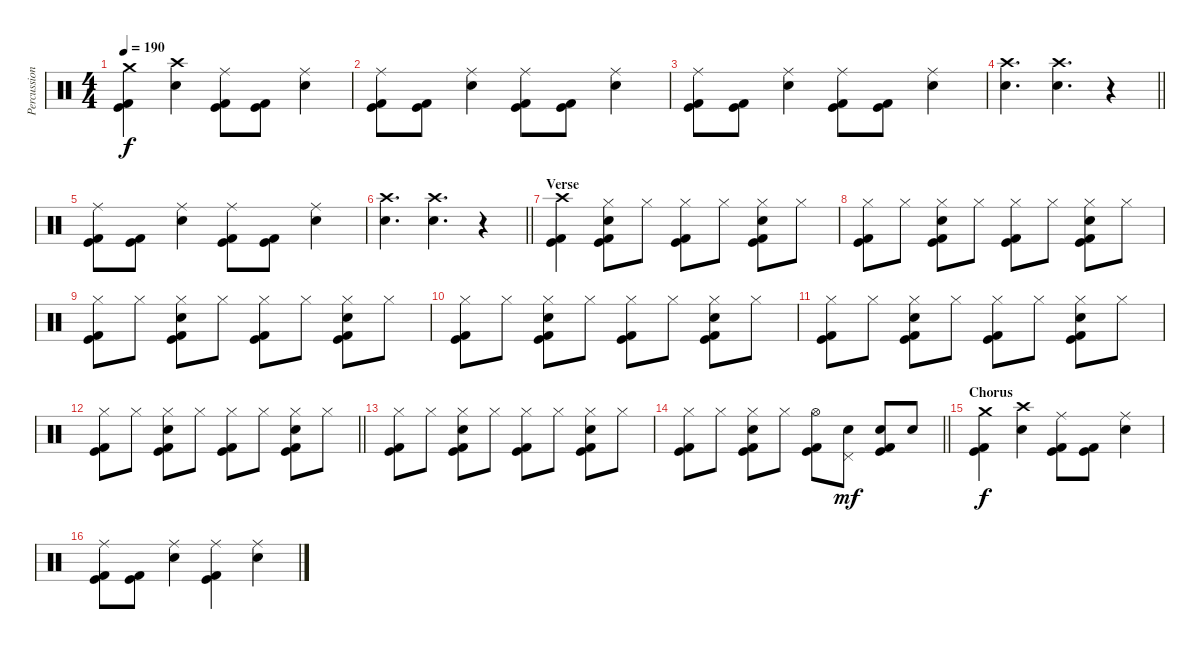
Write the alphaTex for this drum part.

\track ("Percussion" "Percussion") {instrument percussion}
\staff {score}
\articulation defaults
\ts (4 4)
\tempo 190
\clef neutral
\ks c
("Crash medium (hit)" "Kick (hit)" "Kick (hit) 2").4{dy f} ("Crash high (hit)" "Electric Snare (hit)").4 ("Ride (middle)" "Kick (hit)" "Kick (hit) 2").8 ("Kick (hit)" "Kick (hit) 2").8 ("Ride (middle)" "Electric Snare (hit)").4 |
("Ride (middle)" "Kick (hit)" "Kick (hit) 2").8 ("Kick (hit)" "Kick (hit) 2").8 ("Ride (middle)" "Electric Snare (hit)").4 ("Ride (middle)" "Kick (hit)" "Kick (hit) 2").8 ("Kick (hit)" "Kick (hit) 2").8 ("Ride (middle)" "Electric Snare (hit)").4 |
("Ride (middle)" "Kick (hit)" "Kick (hit) 2").8 ("Kick (hit)" "Kick (hit) 2").8 ("Ride (middle)" "Electric Snare (hit)").4 ("Ride (middle)" "Kick (hit)" "Kick (hit) 2").8 ("Kick (hit)" "Kick (hit) 2").8 ("Ride (middle)" "Electric Snare (hit)").4 |
\barLineRight lightlight
("Crash high (hit)" "Electric Snare (hit)").4{d} ("Crash high (hit)" "Electric Snare (hit)").4{d} r.4 |
("Ride (middle)" "Kick (hit)" "Kick (hit) 2").8 ("Kick (hit)" "Kick (hit) 2").8 ("Ride (middle)" "Electric Snare (hit)").4 ("Ride (middle)" "Kick (hit)" "Kick (hit) 2").8 ("Kick (hit)" "Kick (hit) 2").8 ("Ride (middle)" "Electric Snare (hit)").4 |
\barLineRight lightlight
("Crash high (hit)" "Electric Snare (hit)").4{d} ("Crash high (hit)" "Electric Snare (hit)").4{d} r.4 |
\section ("" "Verse")
("Crash high (hit)" "Kick (hit)" "Kick (hit) 2").4 ("Hi-Hat (closed)" "Electric Snare (hit)" "Kick (hit)" "Kick (hit) 2").8 "Hi-Hat (closed)".8 ("Hi-Hat (closed)" "Kick (hit)" "Kick (hit) 2").8 "Hi-Hat (closed)".8 ("Hi-Hat (closed)" "Electric Snare (hit)" "Kick (hit)" "Kick (hit) 2").8 "Hi-Hat (closed)".8 |
("Hi-Hat (closed)" "Kick (hit)" "Kick (hit) 2").8 "Hi-Hat (closed)".8 ("Hi-Hat (closed)" "Electric Snare (hit)" "Kick (hit)" "Kick (hit) 2").8 "Hi-Hat (closed)".8 ("Hi-Hat (closed)" "Kick (hit)" "Kick (hit) 2").8 "Hi-Hat (closed)".8 ("Hi-Hat (closed)" "Electric Snare (hit)" "Kick (hit)" "Kick (hit) 2").8 "Hi-Hat (closed)".8 |
("Hi-Hat (closed)" "Kick (hit)" "Kick (hit) 2").8 "Hi-Hat (closed)".8 ("Hi-Hat (closed)" "Electric Snare (hit)" "Kick (hit)" "Kick (hit) 2").8 "Hi-Hat (closed)".8 ("Hi-Hat (closed)" "Kick (hit)" "Kick (hit) 2").8 "Hi-Hat (closed)".8 ("Hi-Hat (closed)" "Electric Snare (hit)" "Kick (hit)" "Kick (hit) 2").8 "Hi-Hat (closed)".8 |
("Hi-Hat (closed)" "Kick (hit)" "Kick (hit) 2").8 "Hi-Hat (closed)".8 ("Hi-Hat (closed)" "Electric Snare (hit)" "Kick (hit)" "Kick (hit) 2").8 "Hi-Hat (closed)".8 ("Hi-Hat (closed)" "Kick (hit)" "Kick (hit) 2").8 "Hi-Hat (closed)".8 ("Hi-Hat (closed)" "Electric Snare (hit)" "Kick (hit)" "Kick (hit) 2").8 "Hi-Hat (closed)".8 |
("Hi-Hat (closed)" "Kick (hit)" "Kick (hit) 2").8 "Hi-Hat (closed)".8 ("Hi-Hat (closed)" "Electric Snare (hit)" "Kick (hit)" "Kick (hit) 2").8 "Hi-Hat (closed)".8 ("Hi-Hat (closed)" "Kick (hit)" "Kick (hit) 2").8 "Hi-Hat (closed)".8 ("Hi-Hat (closed)" "Electric Snare (hit)" "Kick (hit)" "Kick (hit) 2").8 "Hi-Hat (closed)".8 |
\barLineRight lightlight
("Hi-Hat (closed)" "Kick (hit)" "Kick (hit) 2").8 "Hi-Hat (closed)".8 ("Hi-Hat (closed)" "Electric Snare (hit)" "Kick (hit)" "Kick (hit) 2").8 "Hi-Hat (closed)".8 ("Hi-Hat (closed)" "Kick (hit)" "Kick (hit) 2").8 "Hi-Hat (closed)".8 ("Hi-Hat (closed)" "Electric Snare (hit)" "Kick (hit)" "Kick (hit) 2").8 "Hi-Hat (closed)".8 |
("Hi-Hat (closed)" "Kick (hit)" "Kick (hit) 2").8 "Hi-Hat (closed)".8 ("Hi-Hat (closed)" "Electric Snare (hit)" "Kick (hit)" "Kick (hit) 2").8 "Hi-Hat (closed)".8 ("Hi-Hat (closed)" "Kick (hit)" "Kick (hit) 2").8 "Hi-Hat (closed)".8 ("Hi-Hat (closed)" "Electric Snare (hit)" "Kick (hit)" "Kick (hit) 2").8 "Hi-Hat (closed)".8 |
\barLineRight lightlight
("Hi-Hat (closed)" "Kick (hit)" "Kick (hit) 2").8 "Hi-Hat (closed)".8 ("Hi-Hat (closed)" "Electric Snare (hit)" "Kick (hit)" "Kick (hit) 2").8 "Hi-Hat (closed)".8 ("Hi-Hat (open)" "Kick (hit)" "Kick (hit) 2").8 ("Pedal Hi-Hat (hit)" "Electric Snare (hit)").8{dy mf} ("Electric Snare (hit)" "Kick (hit)" "Kick (hit) 2").8 "Electric Snare (hit)".8 |
\section ("" "Chorus")
("Crash medium (hit)" "Kick (hit)" "Kick (hit) 2").4{dy f} ("Crash high (hit)" "Electric Snare (hit)").4 ("Ride (middle)" "Kick (hit)" "Kick (hit) 2").8 ("Kick (hit)" "Kick (hit) 2").8 ("Ride (middle)" "Electric Snare (hit)").4 |
("Ride (middle)" "Kick (hit)" "Kick (hit) 2").8 ("Kick (hit)" "Kick (hit) 2").8 ("Ride (middle)" "Electric Snare (hit)").4 ("Ride (middle)" "Kick (hit)" "Kick (hit) 2").4 ("Ride (middle)" "Electric Snare (hit)").4
